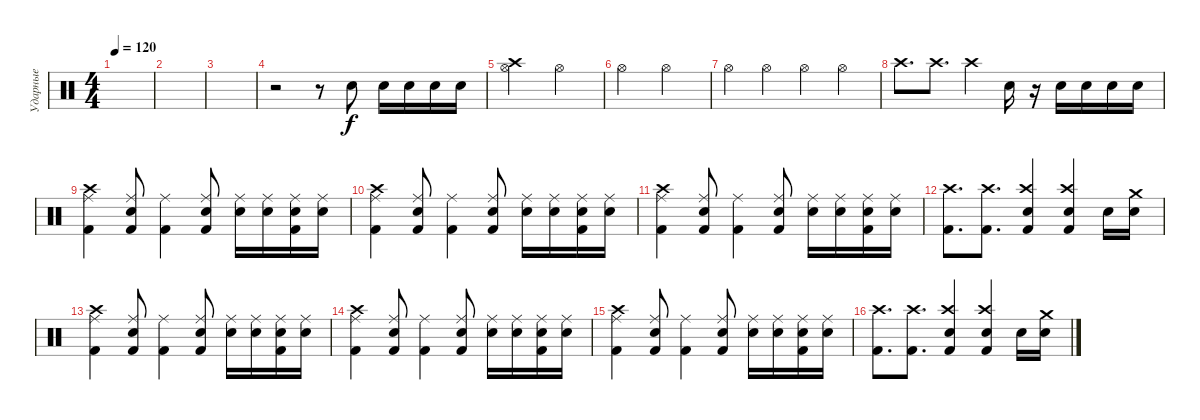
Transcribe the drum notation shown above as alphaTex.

\track ("Ударные" "Ударные") {instrument percussion}
\staff {score}
\articulation defaults
\ts (4 4)
\tempo 120
\clef neutral
\ks c
|
|
|
r.2 r.8 "Snare (hit) 2".8 "Snare (hit) 2".16 "Snare (hit) 2".16 "Snare (hit) 2".16 "Snare (hit) 2".16 |
("Crash high (hit)" "Hi-Hat (open)").2 "Hi-Hat (open)".2 |
"Hi-Hat (open)".2 "Hi-Hat (open)".2 |
"Hi-Hat (open)".4 "Hi-Hat (open)".4 "Hi-Hat (open)".4 "Hi-Hat (open)".4 |
"Crash high (hit)".8{d} "Crash high (hit)".8{d} "Crash high (hit)".4 "Snare (hit) 2".16 r.16 "Snare (hit) 2".16 "Snare (hit) 2".16 "Snare (hit) 2".16 "Snare (hit) 2".16 |
("Ride (middle)" "Kick (hit) 2" "Crash high (hit)").4 ("Ride (middle)" "Kick (hit) 2" "Snare (hit) 2").8 ("Ride (middle)" "Kick (hit) 2").4 ("Ride (middle)" "Kick (hit) 2" "Snare (hit) 2").8 ("Ride (middle)" "Snare (hit) 2").16 ("Ride (middle)" "Snare (hit) 2").16 ("Ride (middle)" "Kick (hit) 2" "Snare (hit) 2").16 ("Ride (middle)" "Snare (hit) 2").16 |
("Ride (middle)" "Kick (hit) 2" "Crash high (hit)").4 ("Ride (middle)" "Kick (hit) 2" "Snare (hit) 2").8 ("Ride (middle)" "Kick (hit) 2").4 ("Ride (middle)" "Kick (hit) 2" "Snare (hit) 2").8 ("Ride (middle)" "Snare (hit) 2").16 ("Ride (middle)" "Snare (hit) 2").16 ("Ride (middle)" "Kick (hit) 2" "Snare (hit) 2").16 ("Ride (middle)" "Snare (hit) 2").16 |
("Ride (middle)" "Kick (hit) 2" "Crash high (hit)").4 ("Ride (middle)" "Kick (hit) 2" "Snare (hit) 2").8 ("Ride (middle)" "Kick (hit) 2").4 ("Ride (middle)" "Kick (hit) 2" "Snare (hit) 2").8 ("Ride (middle)" "Snare (hit) 2").16 ("Ride (middle)" "Snare (hit) 2").16 ("Ride (middle)" "Kick (hit) 2" "Snare (hit) 2").16 ("Ride (middle)" "Snare (hit) 2").16 |
("Crash high (hit)" "Kick (hit) 2").8{d} ("Crash high (hit)" "Kick (hit) 2").8{d} ("Crash high (hit)" "Snare (hit) 2" "Kick (hit) 2").4 ("Crash high (hit)" "Snare (hit) 2" "Kick (hit) 2").4 "Snare (hit) 2".16 ("Snare (hit) 2" "Crash medium (hit)").16 |
("Ride (middle)" "Kick (hit) 2" "Crash high (hit)").4 ("Ride (middle)" "Kick (hit) 2" "Snare (hit) 2").8 ("Ride (middle)" "Kick (hit) 2").4 ("Ride (middle)" "Kick (hit) 2" "Snare (hit) 2").8 ("Ride (middle)" "Snare (hit) 2").16 ("Ride (middle)" "Snare (hit) 2").16 ("Ride (middle)" "Kick (hit) 2" "Snare (hit) 2").16 ("Ride (middle)" "Snare (hit) 2").16 |
("Ride (middle)" "Kick (hit) 2" "Crash high (hit)").4 ("Ride (middle)" "Kick (hit) 2" "Snare (hit) 2").8 ("Ride (middle)" "Kick (hit) 2").4 ("Ride (middle)" "Kick (hit) 2" "Snare (hit) 2").8 ("Ride (middle)" "Snare (hit) 2").16 ("Ride (middle)" "Snare (hit) 2").16 ("Ride (middle)" "Kick (hit) 2" "Snare (hit) 2").16 ("Ride (middle)" "Snare (hit) 2").16 |
("Ride (middle)" "Kick (hit) 2" "Crash high (hit)").4 ("Ride (middle)" "Kick (hit) 2" "Snare (hit) 2").8 ("Ride (middle)" "Kick (hit) 2").4 ("Ride (middle)" "Kick (hit) 2" "Snare (hit) 2").8 ("Ride (middle)" "Snare (hit) 2").16 ("Ride (middle)" "Snare (hit) 2").16 ("Ride (middle)" "Kick (hit) 2" "Snare (hit) 2").16 ("Ride (middle)" "Snare (hit) 2").16 |
("Crash high (hit)" "Kick (hit) 2").8{d} ("Crash high (hit)" "Kick (hit) 2").8{d} ("Crash high (hit)" "Snare (hit) 2" "Kick (hit) 2").4 ("Crash high (hit)" "Snare (hit) 2" "Kick (hit) 2").4 "Snare (hit) 2".16 ("Snare (hit) 2" "Crash medium (hit)").16
